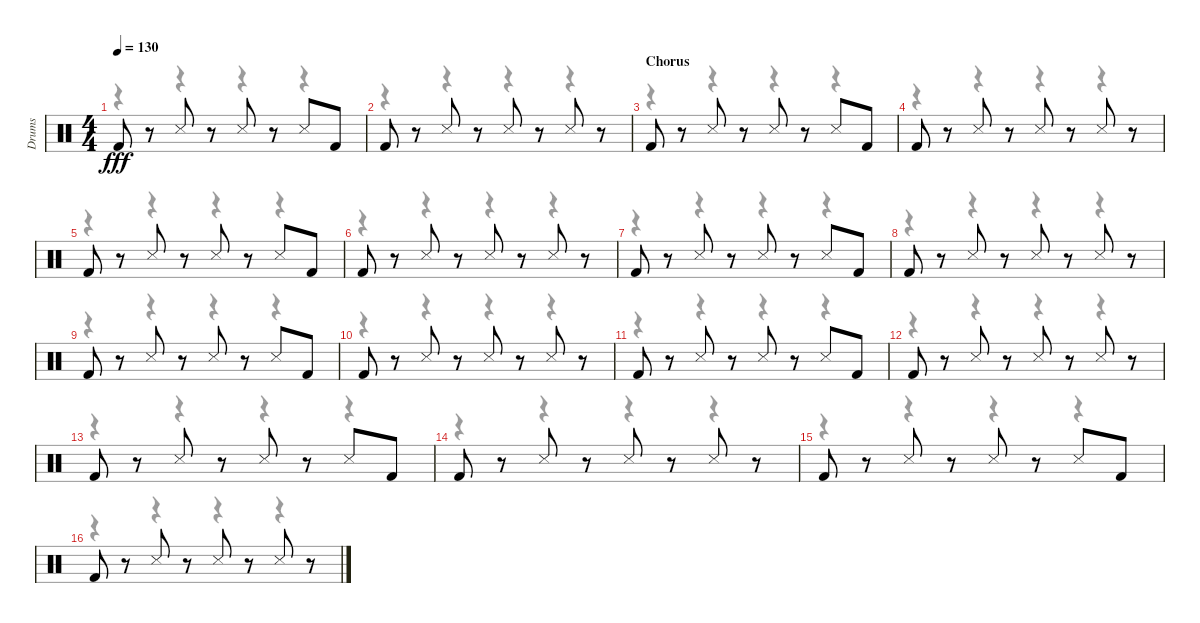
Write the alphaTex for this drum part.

\track ("Drums" "Drums") {instrument percussion}
\staff {score}
\articulation defaults
\voice
\ts (4 4)
\tempo 130
\clef neutral
\ks c "Kick (hit) 2".8{dy fff}
r.8 "Snare (side stick) 3".8 r.8 "Snare (side stick) 3".8 r.8 "Snare (side stick) 3".8 "Kick (hit) 2".8 |
"Kick (hit) 2".8 r.8 "Snare (side stick) 3".8 r.8 "Snare (side stick) 3".8 r.8 "Snare (side stick) 3".8 r.8 |
\section ("" "Chorus")
"Kick (hit) 2".8 r.8 "Snare (side stick) 3".8 r.8 "Snare (side stick) 3".8 r.8 "Snare (side stick) 3".8 "Kick (hit) 2".8 |
"Kick (hit) 2".8 r.8 "Snare (side stick) 3".8 r.8 "Snare (side stick) 3".8 r.8 "Snare (side stick) 3".8 r.8 |
"Kick (hit) 2".8 r.8 "Snare (side stick) 3".8 r.8 "Snare (side stick) 3".8 r.8 "Snare (side stick) 3".8 "Kick (hit) 2".8 |
"Kick (hit) 2".8 r.8 "Snare (side stick) 3".8 r.8 "Snare (side stick) 3".8 r.8 "Snare (side stick) 3".8 r.8 |
"Kick (hit) 2".8 r.8 "Snare (side stick) 3".8 r.8 "Snare (side stick) 3".8 r.8 "Snare (side stick) 3".8 "Kick (hit) 2".8 |
"Kick (hit) 2".8 r.8 "Snare (side stick) 3".8 r.8 "Snare (side stick) 3".8 r.8 "Snare (side stick) 3".8 r.8 |
"Kick (hit) 2".8 r.8 "Snare (side stick) 3".8 r.8 "Snare (side stick) 3".8 r.8 "Snare (side stick) 3".8 "Kick (hit) 2".8 |
"Kick (hit) 2".8 r.8 "Snare (side stick) 3".8 r.8 "Snare (side stick) 3".8 r.8 "Snare (side stick) 3".8 r.8 |
"Kick (hit) 2".8 r.8 "Snare (side stick) 3".8 r.8 "Snare (side stick) 3".8 r.8 "Snare (side stick) 3".8 "Kick (hit) 2".8 |
"Kick (hit) 2".8 r.8 "Snare (side stick) 3".8 r.8 "Snare (side stick) 3".8 r.8 "Snare (side stick) 3".8 r.8 |
"Kick (hit) 2".8 r.8 "Snare (side stick) 3".8 r.8 "Snare (side stick) 3".8 r.8 "Snare (side stick) 3".8 "Kick (hit) 2".8 |
"Kick (hit) 2".8 r.8 "Snare (side stick) 3".8 r.8 "Snare (side stick) 3".8 r.8 "Snare (side stick) 3".8 r.8 |
"Kick (hit) 2".8 r.8 "Snare (side stick) 3".8 r.8 "Snare (side stick) 3".8 r.8 "Snare (side stick) 3".8 "Kick (hit) 2".8 |
"Kick (hit) 2".8 r.8 "Snare (side stick) 3".8 r.8 "Snare (side stick) 3".8 r.8 "Snare (side stick) 3".8 r.8
\voice
\clef neutral
\ottava regular
\simile none
\ks c
r.4{dy f} r.4 r.4 r.4 |
r.4 r.4 r.4 r.4 |
r.4 r.4 r.4 r.4 |
r.4 r.4 r.4 r.4 |
r.4 r.4 r.4 r.4 |
r.4 r.4 r.4 r.4 |
r.4 r.4 r.4 r.4 |
r.4 r.4 r.4 r.4 |
r.4 r.4 r.4 r.4 |
r.4 r.4 r.4 r.4 |
r.4 r.4 r.4 r.4 |
r.4 r.4 r.4 r.4 |
r.4 r.4 r.4 r.4 |
r.4 r.4 r.4 r.4 |
r.4 r.4 r.4 r.4 |
r.4 r.4 r.4 r.4
